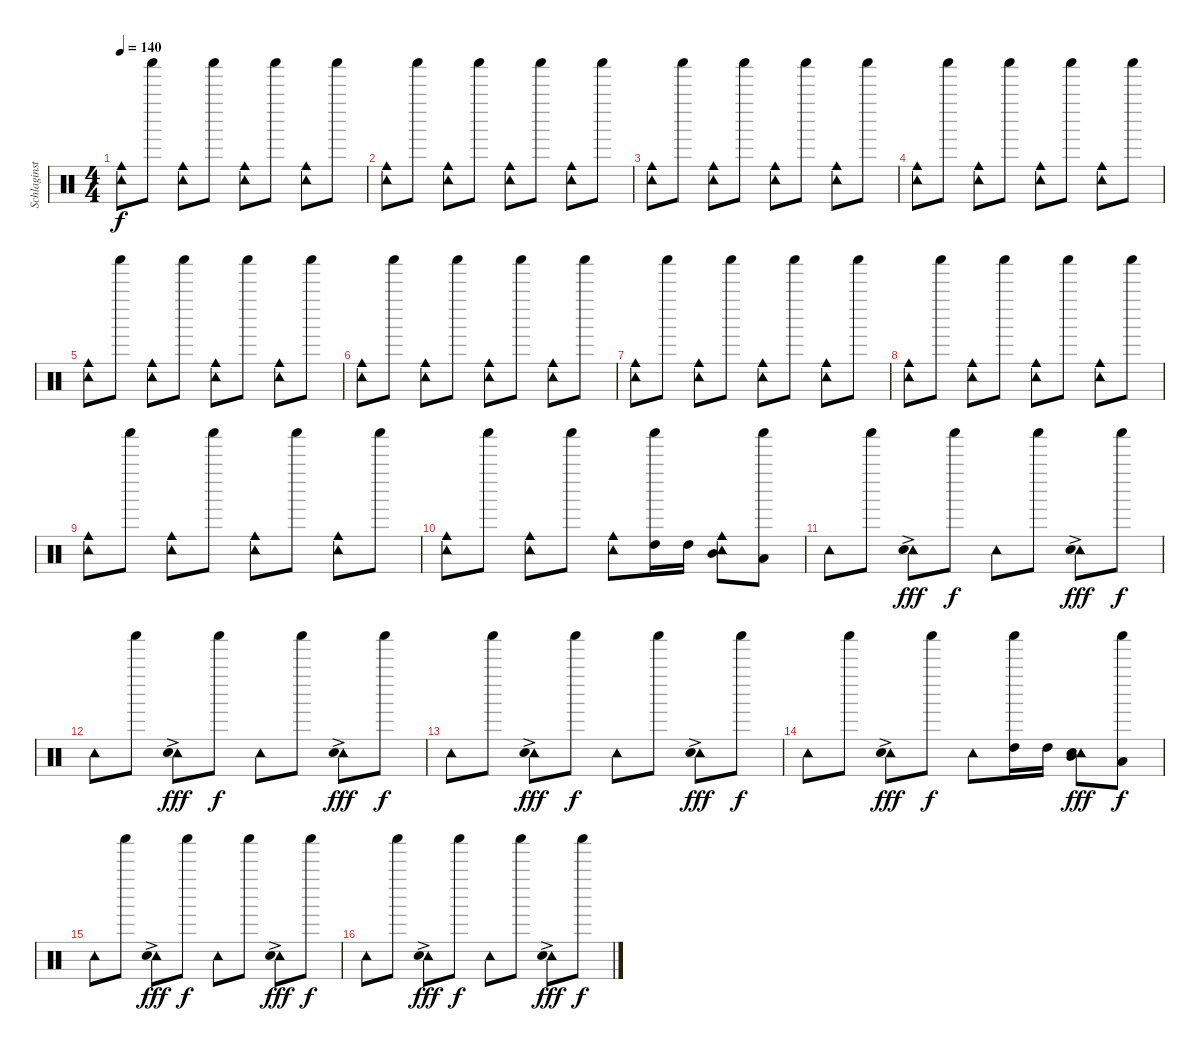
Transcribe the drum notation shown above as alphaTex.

\track ("Schlaginstrumente - Auswahl" "Schlaginst") {instrument percussion}
\staff {score}
\articulation defaults
\ts (4 4)
\tempo 140
\clef neutral
\ks c
("Tambourine (hit)" "Cowbell medium (hit)").8{dy f} "Shaker (hit)".8 ("Tambourine (hit)" "Cowbell medium (hit)").8 "Shaker (hit)".8 ("Tambourine (hit)" "Cowbell medium (hit)").8 "Shaker (hit)".8 ("Tambourine (hit)" "Cowbell medium (hit)").8 "Shaker (hit)".8 |
("Tambourine (hit)" "Cowbell medium (hit)").8 "Shaker (hit)".8 ("Tambourine (hit)" "Cowbell medium (hit)").8 "Shaker (hit)".8 ("Tambourine (hit)" "Cowbell medium (hit)").8 "Shaker (hit)".8 ("Tambourine (hit)" "Cowbell medium (hit)").8 "Shaker (hit)".8 |
("Tambourine (hit)" "Cowbell medium (hit)").8 "Shaker (hit)".8 ("Tambourine (hit)" "Cowbell medium (hit)").8 "Shaker (hit)".8 ("Tambourine (hit)" "Cowbell medium (hit)").8 "Shaker (hit)".8 ("Tambourine (hit)" "Cowbell medium (hit)").8 "Shaker (hit)".8 |
("Tambourine (hit)" "Cowbell medium (hit)").8 "Shaker (hit)".8 ("Tambourine (hit)" "Cowbell medium (hit)").8 "Shaker (hit)".8 ("Tambourine (hit)" "Cowbell medium (hit)").8 "Shaker (hit)".8 ("Tambourine (hit)" "Cowbell medium (hit)").8 "Shaker (hit)".8 |
("Tambourine (hit)" "Cowbell medium (hit)").8 "Shaker (hit)".8 ("Tambourine (hit)" "Cowbell medium (hit)").8 "Shaker (hit)".8 ("Tambourine (hit)" "Cowbell medium (hit)").8 "Shaker (hit)".8 ("Tambourine (hit)" "Cowbell medium (hit)").8 "Shaker (hit)".8 |
("Tambourine (hit)" "Cowbell medium (hit)").8 "Shaker (hit)".8 ("Tambourine (hit)" "Cowbell medium (hit)").8 "Shaker (hit)".8 ("Tambourine (hit)" "Cowbell medium (hit)").8 "Shaker (hit)".8 ("Tambourine (hit)" "Cowbell medium (hit)").8 "Shaker (hit)".8 |
("Tambourine (hit)" "Cowbell medium (hit)").8 "Shaker (hit)".8 ("Tambourine (hit)" "Cowbell medium (hit)").8 "Shaker (hit)".8 ("Tambourine (hit)" "Cowbell medium (hit)").8 "Shaker (hit)".8 ("Tambourine (hit)" "Cowbell medium (hit)").8 "Shaker (hit)".8 |
("Tambourine (hit)" "Cowbell medium (hit)").8 "Shaker (hit)".8 ("Tambourine (hit)" "Cowbell medium (hit)").8 "Shaker (hit)".8 ("Tambourine (hit)" "Cowbell medium (hit)").8 "Shaker (hit)".8 ("Tambourine (hit)" "Cowbell medium (hit)").8 "Shaker (hit)".8 |
("Tambourine (hit)" "Cowbell medium (hit)").8 "Shaker (hit)".8 ("Tambourine (hit)" "Cowbell medium (hit)").8 "Shaker (hit)".8 ("Tambourine (hit)" "Cowbell medium (hit)").8 "Shaker (hit)".8 ("Tambourine (hit)" "Cowbell medium (hit)").8 "Shaker (hit)".8 |
("Tambourine (hit)" "Cowbell medium (hit)").8 "Shaker (hit)".8 ("Tambourine (hit)" "Cowbell medium (hit)").8 "Shaker (hit)".8 ("Tambourine (hit)" "Cowbell medium (hit)").8 ("Shaker (hit)" "High Tom (hit)").16 "High Tom (hit)".16 ("Tambourine (hit)" "Mid Tom (hit)" "Cowbell medium (hit)").8 ("Shaker (hit)" "Low Tom (hit)").8 |
"Tambourine (hit)".8 "Shaker (hit)".8 ("Tambourine (hit)" "Snare (hit) 2"{ac}).8{dy fff} "Shaker (hit)".8{dy f} "Tambourine (hit)".8 "Shaker (hit)".8 ("Tambourine (hit)" "Snare (hit) 2"{ac}).8{dy fff} "Shaker (hit)".8{dy f} |
"Tambourine (hit)".8 "Shaker (hit)".8 ("Tambourine (hit)" "Snare (hit) 2"{ac}).8{dy fff} "Shaker (hit)".8{dy f} "Tambourine (hit)".8 "Shaker (hit)".8 ("Tambourine (hit)" "Snare (hit) 2"{ac}).8{dy fff} "Shaker (hit)".8{dy f} |
"Tambourine (hit)".8 "Shaker (hit)".8 ("Tambourine (hit)" "Snare (hit) 2"{ac}).8{dy fff} "Shaker (hit)".8{dy f} "Tambourine (hit)".8 "Shaker (hit)".8 ("Tambourine (hit)" "Snare (hit) 2"{ac}).8{dy fff} "Shaker (hit)".8{dy f} |
"Tambourine (hit)".8 "Shaker (hit)".8 ("Tambourine (hit)" "Snare (hit) 2"{ac}).8{dy fff} "Shaker (hit)".8{dy f} "Tambourine (hit)".8 ("Shaker (hit)" "High Tom (hit)").16 "High Tom (hit)".16 ("Tambourine (hit)" "Mid Tom (hit)" "Snare (hit) 2").8{dy fff} ("Shaker (hit)" "Low Tom (hit)").8{dy f} |
"Tambourine (hit)".8 "Shaker (hit)".8 ("Tambourine (hit)" "Snare (hit) 2"{ac}).8{dy fff} "Shaker (hit)".8{dy f} "Tambourine (hit)".8 "Shaker (hit)".8 ("Tambourine (hit)" "Snare (hit) 2"{ac}).8{dy fff} "Shaker (hit)".8{dy f} |
"Tambourine (hit)".8 "Shaker (hit)".8 ("Tambourine (hit)" "Snare (hit) 2"{ac}).8{dy fff} "Shaker (hit)".8{dy f} "Tambourine (hit)".8 "Shaker (hit)".8 ("Tambourine (hit)" "Snare (hit) 2"{ac}).8{dy fff} "Shaker (hit)".8{dy f}
